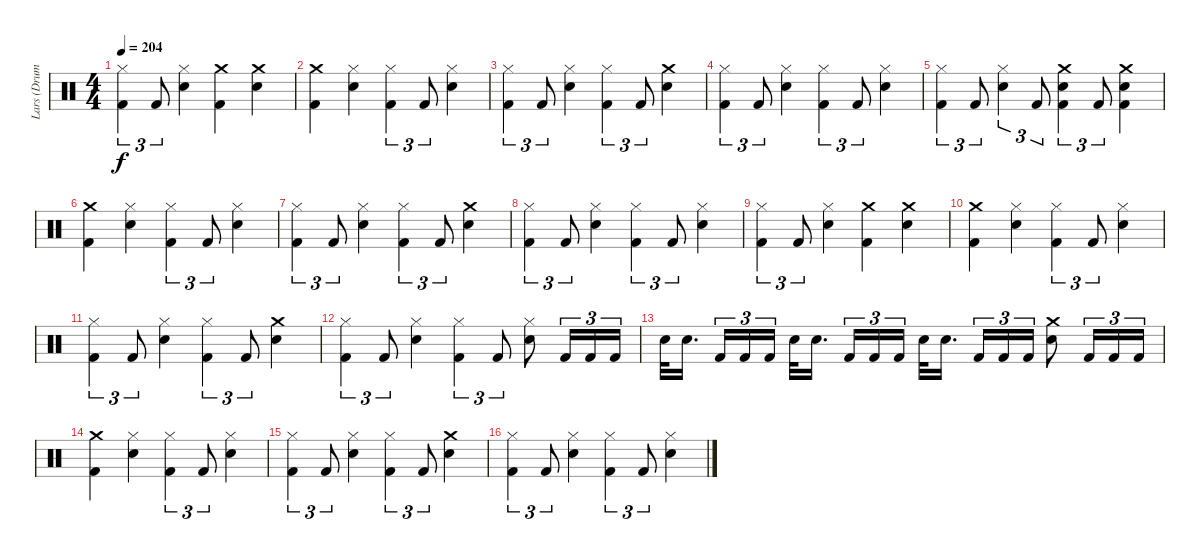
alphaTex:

\track ("Lars (Drums)" "Lars (Drum") {instrument percussion}
\staff {score}
\articulation defaults
\ts (4 4)
\tempo 204
\clef neutral
\ks c
("Hi-Hat (closed)" "Kick (hit) 2").4{tu (3 2) dy f} "Kick (hit) 2".8{tu (3 2)} ("Snare (hit) 2" "Hi-Hat (closed)").4 ("Crash medium (hit)" "Kick (hit) 2").4 ("Crash medium (hit)" "Snare (hit) 2").4 |
("Kick (hit) 2" "Crash medium (hit)").4 ("Hi-Hat (closed)" "Snare (hit) 2").4 ("Hi-Hat (closed)" "Kick (hit) 2").4{tu (3 2)} "Kick (hit) 2".8{tu (3 2)} ("Snare (hit) 2" "Hi-Hat (closed)").4 |
("Hi-Hat (closed)" "Kick (hit) 2").4{tu (3 2)} "Kick (hit) 2".8{tu (3 2)} ("Snare (hit) 2" "Hi-Hat (closed)").4 ("Hi-Hat (closed)" "Kick (hit) 2").4{tu (3 2)} "Kick (hit) 2".8{tu (3 2)} ("Crash medium (hit)" "Snare (hit) 2").4 |
("Hi-Hat (closed)" "Kick (hit) 2").4{tu (3 2)} "Kick (hit) 2".8{tu (3 2)} ("Snare (hit) 2" "Hi-Hat (closed)").4 ("Hi-Hat (closed)" "Kick (hit) 2").4{tu (3 2)} "Kick (hit) 2".8{tu (3 2)} ("Snare (hit) 2" "Hi-Hat (closed)").4 |
("Hi-Hat (closed)" "Kick (hit) 2").4{tu (3 2)} "Kick (hit) 2".8{tu (3 2)} ("Snare (hit) 2" "Hi-Hat (closed)").4{tu (3 2)} "Kick (hit) 2".8{tu (3 2)} ("Snare (hit) 2" "Crash medium (hit)" "Kick (hit) 2").4{tu (3 2)} "Kick (hit) 2".8{tu (3 2)} ("Kick (hit) 2" "Crash medium (hit)" "Snare (hit) 2").4 |
("Kick (hit) 2" "Crash medium (hit)").4 ("Hi-Hat (closed)" "Snare (hit) 2").4 ("Hi-Hat (closed)" "Kick (hit) 2").4{tu (3 2)} "Kick (hit) 2".8{tu (3 2)} ("Snare (hit) 2" "Hi-Hat (closed)").4 |
("Hi-Hat (closed)" "Kick (hit) 2").4{tu (3 2)} "Kick (hit) 2".8{tu (3 2)} ("Snare (hit) 2" "Hi-Hat (closed)").4 ("Hi-Hat (closed)" "Kick (hit) 2").4{tu (3 2)} "Kick (hit) 2".8{tu (3 2)} ("Crash medium (hit)" "Snare (hit) 2").4 |
("Hi-Hat (closed)" "Kick (hit) 2").4{tu (3 2)} "Kick (hit) 2".8{tu (3 2)} ("Snare (hit) 2" "Hi-Hat (closed)").4 ("Hi-Hat (closed)" "Kick (hit) 2").4{tu (3 2)} "Kick (hit) 2".8{tu (3 2)} ("Snare (hit) 2" "Hi-Hat (closed)").4 |
("Hi-Hat (closed)" "Kick (hit) 2").4{tu (3 2)} "Kick (hit) 2".8{tu (3 2)} ("Snare (hit) 2" "Hi-Hat (closed)").4 ("Crash medium (hit)" "Kick (hit) 2").4 ("Crash medium (hit)" "Snare (hit) 2").4 |
("Kick (hit) 2" "Crash medium (hit)").4 ("Hi-Hat (closed)" "Snare (hit) 2").4 ("Hi-Hat (closed)" "Kick (hit) 2").4{tu (3 2)} "Kick (hit) 2".8{tu (3 2)} ("Snare (hit) 2" "Hi-Hat (closed)").4 |
("Hi-Hat (closed)" "Kick (hit) 2").4{tu (3 2)} "Kick (hit) 2".8{tu (3 2)} ("Snare (hit) 2" "Hi-Hat (closed)").4 ("Hi-Hat (closed)" "Kick (hit) 2").4{tu (3 2)} "Kick (hit) 2".8{tu (3 2)} ("Crash medium (hit)" "Snare (hit) 2").4 |
("Hi-Hat (closed)" "Kick (hit) 2").4{tu (3 2)} "Kick (hit) 2".8{tu (3 2)} ("Snare (hit) 2" "Hi-Hat (closed)").4 ("Hi-Hat (closed)" "Kick (hit) 2").4{tu (3 2)} "Kick (hit) 2".8{tu (3 2)} ("Snare (hit) 2" "Hi-Hat (closed)").8 "Kick (hit) 2".16{tu (3 2)} "Kick (hit) 2".16{tu (3 2)} "Kick (hit) 2".16{tu (3 2)} |
"Snare (hit) 2".32 "Snare (hit) 2".16{d beam splitsecondary} "Kick (hit) 2".16{tu (3 2)} "Kick (hit) 2".16{tu (3 2)} "Kick (hit) 2".16{tu (3 2)} "Snare (hit) 2".32 "Snare (hit) 2".16{d beam splitsecondary} "Kick (hit) 2".16{tu (3 2)} "Kick (hit) 2".16{tu (3 2)} "Kick (hit) 2".16{tu (3 2)} "Snare (hit) 2".32 "Snare (hit) 2".16{d beam splitsecondary} "Kick (hit) 2".16{tu (3 2)} "Kick (hit) 2".16{tu (3 2)} "Kick (hit) 2".16{tu (3 2)} ("Crash medium (hit)" "Snare (hit) 2").8 "Kick (hit) 2".16{tu (3 2)} "Kick (hit) 2".16{tu (3 2)} "Kick (hit) 2".16{tu (3 2)} |
("Kick (hit) 2" "Crash medium (hit)").4 ("Hi-Hat (closed)" "Snare (hit) 2").4 ("Hi-Hat (closed)" "Kick (hit) 2").4{tu (3 2)} "Kick (hit) 2".8{tu (3 2)} ("Snare (hit) 2" "Hi-Hat (closed)").4 |
("Hi-Hat (closed)" "Kick (hit) 2").4{tu (3 2)} "Kick (hit) 2".8{tu (3 2)} ("Snare (hit) 2" "Hi-Hat (closed)").4 ("Hi-Hat (closed)" "Kick (hit) 2").4{tu (3 2)} "Kick (hit) 2".8{tu (3 2)} ("Crash medium (hit)" "Snare (hit) 2").4 |
("Hi-Hat (closed)" "Kick (hit) 2").4{tu (3 2)} "Kick (hit) 2".8{tu (3 2)} ("Snare (hit) 2" "Hi-Hat (closed)").4 ("Hi-Hat (closed)" "Kick (hit) 2").4{tu (3 2)} "Kick (hit) 2".8{tu (3 2)} ("Snare (hit) 2" "Hi-Hat (closed)").4
